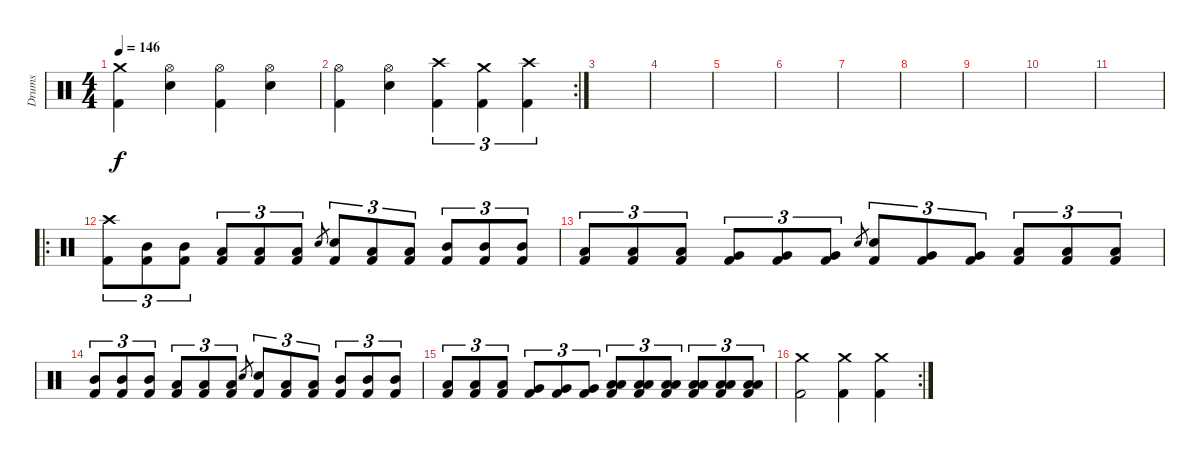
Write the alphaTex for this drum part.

\track ("Drums" "Drums") {instrument percussion}
\staff {score}
\articulation defaults
\ts (4 4)
\tempo 146
\clef neutral
\ks c
("Crash medium (hit)" "Kick (hit) 2").4{dy f} ("Hi-Hat (open)" "Snare (hit) 2").4 ("Hi-Hat (open)" "Kick (hit) 2").4 ("Hi-Hat (open)" "Snare (hit) 2").4 |
\rc 2
("Hi-Hat (open)" "Kick (hit) 2").4 ("Hi-Hat (open)" "Snare (hit) 2").4 ("Crash high (hit)" "Kick (hit) 2").4{tu (3 2)} ("Crash medium (hit)" "Kick (hit) 2").4{tu (3 2)} ("Crash high (hit)" "Kick (hit) 2").4{tu (3 2)} |
|
|
|
|
|
|
|
|
|
\ro
("Crash high (hit)" "Kick (hit) 2").8{tu (3 2)} ("Mid Tom (hit)" "Kick (hit) 2").8{tu (3 2)} ("Mid Tom (hit)" "Kick (hit) 2").8{tu (3 2)} ("Low Tom (hit)" "Kick (hit) 2").8{tu (3 2)} ("Low Tom (hit)" "Kick (hit) 2").8{tu (3 2)} ("Low Tom (hit)" "Kick (hit) 2").8{tu (3 2)} "Snare (hit) 2".8{gr} ("Snare (hit) 2" "Kick (hit) 2").8{tu (3 2)} ("Low Tom (hit)" "Kick (hit) 2").8{tu (3 2)} ("Low Tom (hit)" "Kick (hit) 2").8{tu (3 2)} ("Mid Tom (hit)" "Kick (hit) 2").8{tu (3 2)} ("Mid Tom (hit)" "Kick (hit) 2").8{tu (3 2)} ("Mid Tom (hit)" "Kick (hit) 2").8{tu (3 2)} |
("Low Tom (hit)" "Kick (hit) 2").8{tu (3 2)} ("Low Tom (hit)" "Kick (hit) 2").8{tu (3 2)} ("Low Tom (hit)" "Kick (hit) 2").8{tu (3 2)} ("Very Low Tom (hit)" "Kick (hit) 2").8{tu (3 2)} ("Very Low Tom (hit)" "Kick (hit) 2").8{tu (3 2)} ("Very Low Tom (hit)" "Kick (hit) 2").8{tu (3 2)} "Snare (hit) 2".8{gr} ("Snare (hit) 2" "Kick (hit) 2").8{tu (3 2)} ("Very Low Tom (hit)" "Kick (hit) 2").8{tu (3 2)} ("Very Low Tom (hit)" "Kick (hit) 2").8{tu (3 2)} ("Low Tom (hit)" "Kick (hit) 2").8{tu (3 2)} ("Low Tom (hit)" "Kick (hit) 2").8{tu (3 2)} ("Low Tom (hit)" "Kick (hit) 2").8{tu (3 2)} |
("Mid Tom (hit)" "Kick (hit) 2").8{tu (3 2)} ("Mid Tom (hit)" "Kick (hit) 2").8{tu (3 2)} ("Mid Tom (hit)" "Kick (hit) 2").8{tu (3 2)} ("Low Tom (hit)" "Kick (hit) 2").8{tu (3 2)} ("Low Tom (hit)" "Kick (hit) 2").8{tu (3 2)} ("Low Tom (hit)" "Kick (hit) 2").8{tu (3 2)} "Snare (hit) 2".8{gr} ("Snare (hit) 2" "Kick (hit) 2").8{tu (3 2)} ("Low Tom (hit)" "Kick (hit) 2").8{tu (3 2)} ("Low Tom (hit)" "Kick (hit) 2").8{tu (3 2)} ("Mid Tom (hit)" "Kick (hit) 2").8{tu (3 2)} ("Mid Tom (hit)" "Kick (hit) 2").8{tu (3 2)} ("Mid Tom (hit)" "Kick (hit) 2").8{tu (3 2)} |
("Low Tom (hit)" "Kick (hit) 2").8{tu (3 2)} ("Low Tom (hit)" "Kick (hit) 2").8{tu (3 2)} ("Low Tom (hit)" "Kick (hit) 2").8{tu (3 2)} ("Very Low Tom (hit)" "Kick (hit) 2").8{tu (3 2)} ("Very Low Tom (hit)" "Kick (hit) 2").8{tu (3 2)} ("Very Low Tom (hit)" "Kick (hit) 2").8{tu (3 2)} ("Low Floor Tom (hit)" "Low Floor Tom (hit)" "Kick (hit) 2").8{tu (3 2)} ("Low Floor Tom (hit)" "Low Floor Tom (hit)" "Kick (hit) 2").8{tu (3 2)} ("Low Floor Tom (hit)" "Low Floor Tom (hit)" "Kick (hit) 2").8{tu (3 2)} ("Low Floor Tom (hit)" "Low Floor Tom (hit)" "Kick (hit) 2").8{tu (3 2)} ("Low Floor Tom (hit)" "Low Floor Tom (hit)" "Kick (hit) 2").8{tu (3 2)} ("Low Floor Tom (hit)" "Low Floor Tom (hit)" "Kick (hit) 2").8{tu (3 2)} |
\rc 2
("Crash medium (hit)" "Kick (hit) 2").2 ("Crash medium (hit)" "Kick (hit) 2").4 ("Crash medium (hit)" "Kick (hit) 2").4
